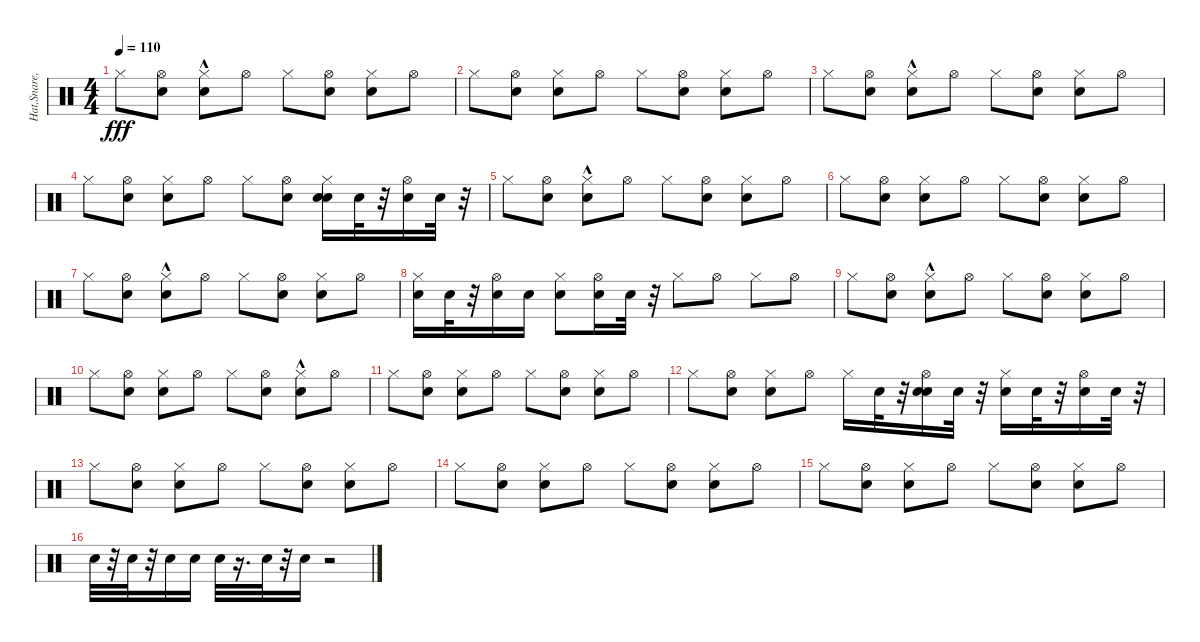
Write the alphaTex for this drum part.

\track ("Hat,Snare,Clap" "Hat,Snare,") {instrument percussion}
\staff {score}
\articulation defaults
\ts (4 4)
\tempo 110
\clef neutral
\ks c "Hi-Hat (closed)".8{dy fff}
("Hi-Hat (open)" "Electric Snare (hit)").8 ("Hi-Hat (closed)" "Hand Clap (hit)"{hac}).8 "Hi-Hat (open)".8 "Hi-Hat (closed)".8 ("Hi-Hat (open)" "Electric Snare (hit)").8 ("Hi-Hat (closed)" "Hand Clap (hit)").8 "Hi-Hat (open)".8 |
"Hi-Hat (closed)".8 ("Hi-Hat (open)" "Electric Snare (hit)").8 ("Hi-Hat (closed)" "Hand Clap (hit)").8 "Hi-Hat (open)".8 "Hi-Hat (closed)".8 ("Hi-Hat (open)" "Electric Snare (hit)").8 ("Hi-Hat (closed)" "Hand Clap (hit)").8 "Hi-Hat (open)".8 |
"Hi-Hat (closed)".8 ("Hi-Hat (open)" "Electric Snare (hit)").8 ("Hi-Hat (closed)" "Hand Clap (hit)"{hac}).8 "Hi-Hat (open)".8 "Hi-Hat (closed)".8 ("Hi-Hat (open)" "Electric Snare (hit)").8 ("Hi-Hat (closed)" "Hand Clap (hit)").8 "Hi-Hat (open)".8 |
"Hi-Hat (closed)".8 ("Hi-Hat (open)" "Electric Snare (hit)").8 ("Hi-Hat (closed)" "Hand Clap (hit)").8 "Hi-Hat (open)".8 "Hi-Hat (closed)".8 ("Hi-Hat (open)" "Electric Snare (hit)").8 ("Hi-Hat (closed)" "Electric Snare (hit)" "Hand Clap (hit)").16 "Electric Snare (hit)".32 r.32 ("Hi-Hat (open)" "Electric Snare (hit)").16 "Electric Snare (hit)".32 r.32 |
"Hi-Hat (closed)".8 ("Hi-Hat (open)" "Electric Snare (hit)").8 ("Hi-Hat (closed)" "Hand Clap (hit)"{hac}).8 "Hi-Hat (open)".8 "Hi-Hat (closed)".8 ("Hi-Hat (open)" "Electric Snare (hit)").8 ("Hi-Hat (closed)" "Hand Clap (hit)").8 "Hi-Hat (open)".8 |
"Hi-Hat (closed)".8 ("Hi-Hat (open)" "Electric Snare (hit)").8 ("Hi-Hat (closed)" "Hand Clap (hit)").8 "Hi-Hat (open)".8 "Hi-Hat (closed)".8 ("Hi-Hat (open)" "Electric Snare (hit)").8 ("Hi-Hat (closed)" "Hand Clap (hit)").8 "Hi-Hat (open)".8 |
"Hi-Hat (closed)".8 ("Hi-Hat (open)" "Electric Snare (hit)").8 ("Hi-Hat (closed)" "Hand Clap (hit)"{hac}).8 "Hi-Hat (open)".8 "Hi-Hat (closed)".8 ("Hi-Hat (open)" "Electric Snare (hit)").8 ("Hi-Hat (closed)" "Hand Clap (hit)").8 "Hi-Hat (open)".8 |
("Hi-Hat (closed)" "Electric Snare (hit)").16 "Electric Snare (hit)".32 r.32 ("Hi-Hat (open)" "Electric Snare (hit)").16 "Electric Snare (hit)".16 ("Hi-Hat (closed)" "Electric Snare (hit)").8 ("Hi-Hat (open)" "Electric Snare (hit)").16 "Electric Snare (hit)".32 r.32 "Hi-Hat (closed)".8 "Hi-Hat (open)".8 "Hi-Hat (closed)".8 "Hi-Hat (open)".8 |
"Hi-Hat (closed)".8 ("Hi-Hat (open)" "Electric Snare (hit)").8 ("Hi-Hat (closed)" "Hand Clap (hit)"{hac}).8 "Hi-Hat (open)".8 "Hi-Hat (closed)".8 ("Hi-Hat (open)" "Electric Snare (hit)").8 ("Hi-Hat (closed)" "Hand Clap (hit)").8 "Hi-Hat (open)".8 |
"Hi-Hat (closed)".8 ("Hi-Hat (open)" "Electric Snare (hit)").8 ("Hi-Hat (closed)" "Hand Clap (hit)").8 "Hi-Hat (open)".8 "Hi-Hat (closed)".8 ("Hi-Hat (open)" "Electric Snare (hit)").8 ("Hi-Hat (closed)" "Hand Clap (hit)"{hac}).8 "Hi-Hat (open)".8 |
"Hi-Hat (closed)".8 ("Hi-Hat (open)" "Electric Snare (hit)").8 ("Hi-Hat (closed)" "Hand Clap (hit)").8 "Hi-Hat (open)".8 "Hi-Hat (closed)".8 ("Hi-Hat (open)" "Electric Snare (hit)").8 ("Hand Clap (hit)" "Hi-Hat (closed)").8 "Hi-Hat (open)".8 |
"Hi-Hat (closed)".8 ("Hi-Hat (open)" "Electric Snare (hit)").8 ("Hi-Hat (closed)" "Hand Clap (hit)").8 "Hi-Hat (open)".8 "Hi-Hat (closed)".16 "Electric Snare (hit)".32 r.32 ("Hi-Hat (open)" "Electric Snare (hit)" "Electric Snare (hit)").16 "Electric Snare (hit)".32 r.32 ("Hi-Hat (closed)" "Hand Clap (hit)").16 "Electric Snare (hit)".32 r.32 ("Hi-Hat (open)" "Electric Snare (hit)").16 "Electric Snare (hit)".32 r.32 |
"Hi-Hat (closed)".8 ("Hi-Hat (open)" "Electric Snare (hit)").8 ("Hi-Hat (closed)" "Hand Clap (hit)").8 "Hi-Hat (open)".8 "Hi-Hat (closed)".8 ("Hi-Hat (open)" "Electric Snare (hit)").8 ("Hi-Hat (closed)" "Hand Clap (hit)").8 "Hi-Hat (open)".8 |
"Hi-Hat (closed)".8 ("Hi-Hat (open)" "Electric Snare (hit)").8 ("Hi-Hat (closed)" "Hand Clap (hit)").8 "Hi-Hat (open)".8 "Hi-Hat (closed)".8 ("Hi-Hat (open)" "Electric Snare (hit)").8 ("Hi-Hat (closed)" "Hand Clap (hit)").8 "Hi-Hat (open)".8 |
"Hi-Hat (closed)".8 ("Hi-Hat (open)" "Electric Snare (hit)").8 ("Hi-Hat (closed)" "Hand Clap (hit)").8 "Hi-Hat (open)".8 "Hi-Hat (closed)".8 ("Hi-Hat (open)" "Electric Snare (hit)").8 ("Hi-Hat (closed)" "Hand Clap (hit)").8 "Hi-Hat (open)".8 |
"Electric Snare (hit)".32 r.32 "Electric Snare (hit)".32 r.32 "Electric Snare (hit)".16 "Electric Snare (hit)".16 "Electric Snare (hit)".32 r.16{d} "Electric Snare (hit)".32 r.32 "Electric Snare (hit)".16 r.2
